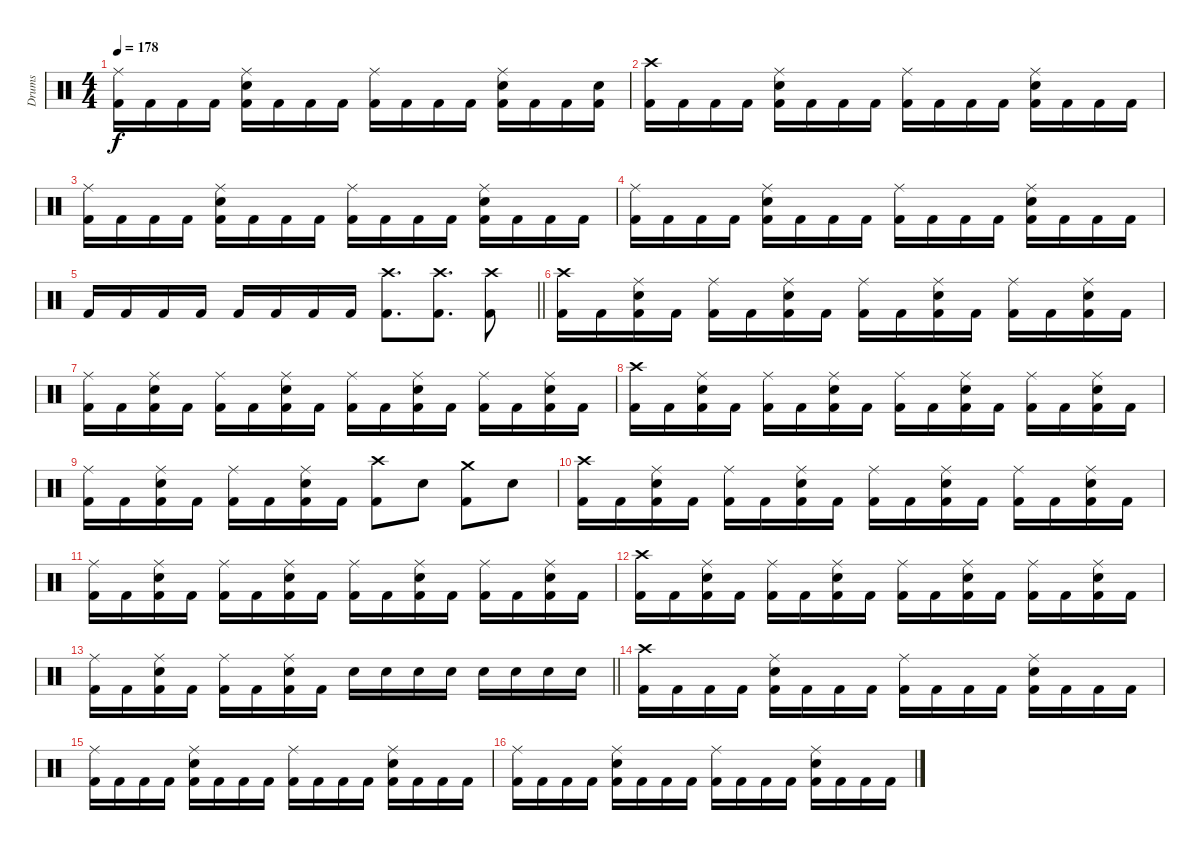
\track ("Drums" "Drums") {instrument percussion}
\staff {score}
\articulation defaults
\ts (4 4)
\tempo 178
\clef neutral
\ks c
("Ride (middle)" "Kick (hit) 2").16{dy f} "Kick (hit) 2".16 "Kick (hit) 2".16 "Kick (hit) 2".16 ("Ride (middle)" "Snare (hit) 2" "Kick (hit) 2").16 "Kick (hit) 2".16 "Kick (hit) 2".16 "Kick (hit) 2".16 ("Ride (middle)" "Kick (hit) 2").16 "Kick (hit) 2".16 "Kick (hit) 2".16 "Kick (hit) 2".16 ("Ride (middle)" "Snare (hit) 2" "Kick (hit) 2").16 "Kick (hit) 2".16 "Kick (hit) 2".16 ("Snare (hit) 2" "Kick (hit) 2").16 |
("Crash high (hit)" "Kick (hit) 2").16 "Kick (hit) 2".16 "Kick (hit) 2".16 "Kick (hit) 2".16 ("Ride (middle)" "Snare (hit) 2" "Kick (hit) 2").16 "Kick (hit) 2".16 "Kick (hit) 2".16 "Kick (hit) 2".16 ("Ride (middle)" "Kick (hit) 2").16 "Kick (hit) 2".16 "Kick (hit) 2".16 "Kick (hit) 2".16 ("Ride (middle)" "Snare (hit) 2" "Kick (hit) 2").16 "Kick (hit) 2".16 "Kick (hit) 2".16 "Kick (hit) 2".16 |
("Ride (middle)" "Kick (hit) 2").16 "Kick (hit) 2".16 "Kick (hit) 2".16 "Kick (hit) 2".16 ("Ride (middle)" "Snare (hit) 2" "Kick (hit) 2").16 "Kick (hit) 2".16 "Kick (hit) 2".16 "Kick (hit) 2".16 ("Ride (middle)" "Kick (hit) 2").16 "Kick (hit) 2".16 "Kick (hit) 2".16 "Kick (hit) 2".16 ("Ride (middle)" "Snare (hit) 2" "Kick (hit) 2").16 "Kick (hit) 2".16 "Kick (hit) 2".16 "Kick (hit) 2".16 |
("Ride (middle)" "Kick (hit) 2").16 "Kick (hit) 2".16 "Kick (hit) 2".16 "Kick (hit) 2".16 ("Ride (middle)" "Snare (hit) 2" "Kick (hit) 2").16 "Kick (hit) 2".16 "Kick (hit) 2".16 "Kick (hit) 2".16 ("Ride (middle)" "Kick (hit) 2").16 "Kick (hit) 2".16 "Kick (hit) 2".16 "Kick (hit) 2".16 ("Ride (middle)" "Snare (hit) 2" "Kick (hit) 2").16 "Kick (hit) 2".16 "Kick (hit) 2".16 "Kick (hit) 2".16 |
\barLineRight lightlight "Kick (hit) 2".16 "Kick (hit) 2".16 "Kick (hit) 2".16 "Kick (hit) 2".16 "Kick (hit) 2".16 "Kick (hit) 2".16 "Kick (hit) 2".16 "Kick (hit) 2".16
("Crash high (hit)" "Kick (hit) 2").8{d} ("Crash high (hit)" "Kick (hit) 2").8{d} ("Crash high (hit)" "Kick (hit) 2").8 |
("Crash high (hit)" "Kick (hit) 2").16 "Kick (hit) 2".16 ("Ride (middle)" "Snare (hit) 2" "Kick (hit) 2").16 "Kick (hit) 2".16 ("Ride (middle)" "Kick (hit) 2").16 "Kick (hit) 2".16 ("Ride (middle)" "Snare (hit) 2" "Kick (hit) 2").16 "Kick (hit) 2".16 ("Ride (middle)" "Kick (hit) 2").16 "Kick (hit) 2".16 ("Ride (middle)" "Snare (hit) 2" "Kick (hit) 2").16 "Kick (hit) 2".16 ("Ride (middle)" "Kick (hit) 2").16 "Kick (hit) 2".16 ("Ride (middle)" "Snare (hit) 2" "Kick (hit) 2").16 "Kick (hit) 2".16 |
("Ride (middle)" "Kick (hit) 2").16 "Kick (hit) 2".16 ("Ride (middle)" "Snare (hit) 2" "Kick (hit) 2").16 "Kick (hit) 2".16 ("Ride (middle)" "Kick (hit) 2").16 "Kick (hit) 2".16 ("Ride (middle)" "Snare (hit) 2" "Kick (hit) 2").16 "Kick (hit) 2".16 ("Ride (middle)" "Kick (hit) 2").16 "Kick (hit) 2".16 ("Ride (middle)" "Snare (hit) 2" "Kick (hit) 2").16 "Kick (hit) 2".16 ("Ride (middle)" "Kick (hit) 2").16 "Kick (hit) 2".16 ("Ride (middle)" "Snare (hit) 2" "Kick (hit) 2").16 "Kick (hit) 2".16 |
("Crash high (hit)" "Kick (hit) 2").16 "Kick (hit) 2".16 ("Ride (middle)" "Snare (hit) 2" "Kick (hit) 2").16 "Kick (hit) 2".16 ("Ride (middle)" "Kick (hit) 2").16 "Kick (hit) 2".16 ("Ride (middle)" "Snare (hit) 2" "Kick (hit) 2").16 "Kick (hit) 2".16 ("Ride (middle)" "Kick (hit) 2").16 "Kick (hit) 2".16 ("Ride (middle)" "Snare (hit) 2" "Kick (hit) 2").16 "Kick (hit) 2".16 ("Ride (middle)" "Kick (hit) 2").16 "Kick (hit) 2".16 ("Ride (middle)" "Snare (hit) 2" "Kick (hit) 2").16 "Kick (hit) 2".16 |
("Ride (middle)" "Kick (hit) 2").16 "Kick (hit) 2".16 ("Ride (middle)" "Snare (hit) 2" "Kick (hit) 2").16 "Kick (hit) 2".16 ("Ride (middle)" "Kick (hit) 2").16 "Kick (hit) 2".16 ("Ride (middle)" "Snare (hit) 2" "Kick (hit) 2").16 "Kick (hit) 2".16 ("Crash high (hit)" "Kick (hit) 2").8 "Electric Snare (hit)".8 ("Crash medium (hit)" "Kick (hit) 2").8 "Electric Snare (hit)".8 |
("Crash high (hit)" "Kick (hit) 2").16 "Kick (hit) 2".16 ("Ride (middle)" "Snare (hit) 2" "Kick (hit) 2").16 "Kick (hit) 2".16 ("Ride (middle)" "Kick (hit) 2").16 "Kick (hit) 2".16 ("Ride (middle)" "Snare (hit) 2" "Kick (hit) 2").16 "Kick (hit) 2".16 ("Ride (middle)" "Kick (hit) 2").16 "Kick (hit) 2".16 ("Ride (middle)" "Snare (hit) 2" "Kick (hit) 2").16 "Kick (hit) 2".16 ("Ride (middle)" "Kick (hit) 2").16 "Kick (hit) 2".16 ("Ride (middle)" "Snare (hit) 2" "Kick (hit) 2").16 "Kick (hit) 2".16 |
("Ride (middle)" "Kick (hit) 2").16 "Kick (hit) 2".16 ("Ride (middle)" "Snare (hit) 2" "Kick (hit) 2").16 "Kick (hit) 2".16 ("Ride (middle)" "Kick (hit) 2").16 "Kick (hit) 2".16 ("Ride (middle)" "Snare (hit) 2" "Kick (hit) 2").16 "Kick (hit) 2".16 ("Ride (middle)" "Kick (hit) 2").16 "Kick (hit) 2".16 ("Ride (middle)" "Snare (hit) 2" "Kick (hit) 2").16 "Kick (hit) 2".16 ("Ride (middle)" "Kick (hit) 2").16 "Kick (hit) 2".16 ("Ride (middle)" "Snare (hit) 2" "Kick (hit) 2").16 "Kick (hit) 2".16 |
("Crash high (hit)" "Kick (hit) 2").16 "Kick (hit) 2".16 ("Ride (middle)" "Snare (hit) 2" "Kick (hit) 2").16 "Kick (hit) 2".16 ("Ride (middle)" "Kick (hit) 2").16 "Kick (hit) 2".16 ("Ride (middle)" "Snare (hit) 2" "Kick (hit) 2").16 "Kick (hit) 2".16 ("Ride (middle)" "Kick (hit) 2").16 "Kick (hit) 2".16 ("Ride (middle)" "Snare (hit) 2" "Kick (hit) 2").16 "Kick (hit) 2".16 ("Ride (middle)" "Kick (hit) 2").16 "Kick (hit) 2".16 ("Ride (middle)" "Snare (hit) 2" "Kick (hit) 2").16 "Kick (hit) 2".16 |
\barLineRight lightlight
("Ride (middle)" "Kick (hit) 2").16 "Kick (hit) 2".16 ("Ride (middle)" "Snare (hit) 2" "Kick (hit) 2").16 "Kick (hit) 2".16 ("Ride (middle)" "Kick (hit) 2").16 "Kick (hit) 2".16 ("Ride (middle)" "Snare (hit) 2" "Kick (hit) 2").16 "Kick (hit) 2".16 "Snare (hit) 2".16 "Snare (hit) 2".16 "Snare (hit) 2".16 "Snare (hit) 2".16 "Snare (hit) 2".16 "Snare (hit) 2".16 "Snare (hit) 2".16 "Snare (hit) 2".16 |
("Crash high (hit)" "Kick (hit) 2").16 "Kick (hit) 2".16 "Kick (hit) 2".16 "Kick (hit) 2".16 ("Ride (middle)" "Snare (hit) 2" "Kick (hit) 2").16 "Kick (hit) 2".16 "Kick (hit) 2".16 "Kick (hit) 2".16 ("Ride (middle)" "Kick (hit) 2").16 "Kick (hit) 2".16 "Kick (hit) 2".16 "Kick (hit) 2".16 ("Ride (middle)" "Snare (hit) 2" "Kick (hit) 2").16 "Kick (hit) 2".16 "Kick (hit) 2".16 "Kick (hit) 2".16 |
("Ride (middle)" "Kick (hit) 2").16 "Kick (hit) 2".16 "Kick (hit) 2".16 "Kick (hit) 2".16 ("Ride (middle)" "Snare (hit) 2" "Kick (hit) 2").16 "Kick (hit) 2".16 "Kick (hit) 2".16 "Kick (hit) 2".16 ("Ride (middle)" "Kick (hit) 2").16 "Kick (hit) 2".16 "Kick (hit) 2".16 "Kick (hit) 2".16 ("Ride (middle)" "Snare (hit) 2" "Kick (hit) 2").16 "Kick (hit) 2".16 "Kick (hit) 2".16 "Kick (hit) 2".16 |
("Ride (middle)" "Kick (hit) 2").16 "Kick (hit) 2".16 "Kick (hit) 2".16 "Kick (hit) 2".16 ("Ride (middle)" "Snare (hit) 2" "Kick (hit) 2").16 "Kick (hit) 2".16 "Kick (hit) 2".16 "Kick (hit) 2".16 ("Ride (middle)" "Kick (hit) 2").16 "Kick (hit) 2".16 "Kick (hit) 2".16 "Kick (hit) 2".16 ("Ride (middle)" "Snare (hit) 2" "Kick (hit) 2").16 "Kick (hit) 2".16 "Kick (hit) 2".16 "Kick (hit) 2".16
